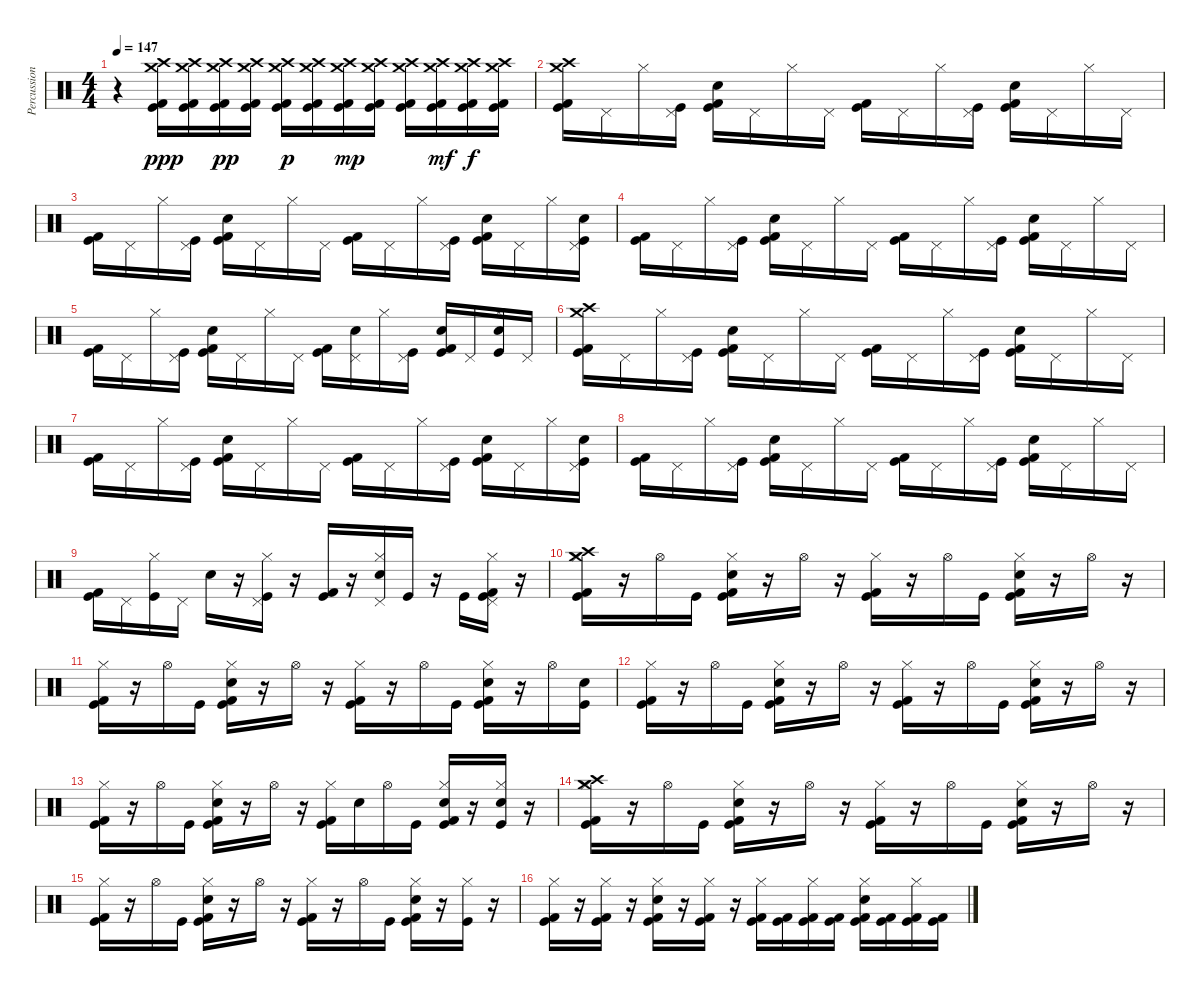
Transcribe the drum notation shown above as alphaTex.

\track ("Percussion (Room Kit)" "Percussion") {instrument percussion}
\staff {score}
\articulation defaults
\ts (4 4)
\tempo 147
\clef neutral
\ks c
r.4{dy f} ("Crash medium (hit)" "Crash high (hit)" "Kick (hit) 2" "Kick (hit)").16{dy ppp} ("Crash medium (hit)" "Crash high (hit)" "Kick (hit) 2" "Kick (hit)").16 ("Crash medium (hit)" "Crash high (hit)" "Kick (hit) 2" "Kick (hit)").16{dy pp} ("Crash medium (hit)" "Crash high (hit)" "Kick (hit) 2" "Kick (hit)").16 ("Crash medium (hit)" "Crash high (hit)" "Kick (hit) 2" "Kick (hit)").16{dy p} ("Crash medium (hit)" "Crash high (hit)" "Kick (hit) 2" "Kick (hit)").16 ("Crash medium (hit)" "Crash high (hit)" "Kick (hit) 2" "Kick (hit)").16{dy mp} ("Crash medium (hit)" "Crash high (hit)" "Kick (hit) 2" "Kick (hit)").16 ("Crash medium (hit)" "Crash high (hit)" "Kick (hit) 2" "Kick (hit)").16 ("Crash medium (hit)" "Crash high (hit)" "Kick (hit) 2" "Kick (hit)").16{dy mf} ("Crash medium (hit)" "Crash high (hit)" "Kick (hit) 2" "Kick (hit)").16{dy f} ("Crash medium (hit)" "Crash high (hit)" "Kick (hit) 2" "Kick (hit)").16 |
("Crash medium (hit)" "Crash high (hit)" "Kick (hit) 2" "Kick (hit)").16 "Pedal Hi-Hat (hit)".16 "Hi-Hat (closed)".16 ("Kick (hit)" "Pedal Hi-Hat (hit)").16 ("Kick (hit) 2" "Kick (hit)" "Hand Clap (hit)").16 "Pedal Hi-Hat (hit)".16 "Hi-Hat (closed)".16 "Pedal Hi-Hat (hit)".16 ("Kick (hit) 2" "Kick (hit)").16 "Pedal Hi-Hat (hit)".16 "Hi-Hat (closed)".16 ("Kick (hit)" "Pedal Hi-Hat (hit)").16 ("Kick (hit) 2" "Kick (hit)" "Hand Clap (hit)").16 "Pedal Hi-Hat (hit)".16 "Hi-Hat (closed)".16 "Pedal Hi-Hat (hit)".16 |
("Kick (hit) 2" "Kick (hit)").16 "Pedal Hi-Hat (hit)".16 "Hi-Hat (closed)".16 ("Kick (hit)" "Pedal Hi-Hat (hit)").16 ("Kick (hit) 2" "Kick (hit)" "Hand Clap (hit)").16 "Pedal Hi-Hat (hit)".16 "Hi-Hat (closed)".16 "Pedal Hi-Hat (hit)".16 ("Kick (hit) 2" "Kick (hit)").16 "Pedal Hi-Hat (hit)".16 "Hi-Hat (closed)".16 ("Kick (hit)" "Pedal Hi-Hat (hit)").16 ("Kick (hit) 2" "Kick (hit)" "Hand Clap (hit)").16 "Pedal Hi-Hat (hit)".16 "Hi-Hat (closed)".16 ("Pedal Hi-Hat (hit)" "Kick (hit)" "Hand Clap (hit)").16 |
("Kick (hit) 2" "Kick (hit)").16 "Pedal Hi-Hat (hit)".16 "Hi-Hat (closed)".16 ("Kick (hit)" "Pedal Hi-Hat (hit)").16 ("Kick (hit) 2" "Kick (hit)" "Hand Clap (hit)").16 "Pedal Hi-Hat (hit)".16 "Hi-Hat (closed)".16 "Pedal Hi-Hat (hit)".16 ("Kick (hit) 2" "Kick (hit)").16 "Pedal Hi-Hat (hit)".16 "Hi-Hat (closed)".16 ("Kick (hit)" "Pedal Hi-Hat (hit)").16 ("Kick (hit) 2" "Kick (hit)" "Hand Clap (hit)").16 "Pedal Hi-Hat (hit)".16 "Hi-Hat (closed)".16 "Pedal Hi-Hat (hit)".16 |
("Kick (hit) 2" "Kick (hit)").16 "Pedal Hi-Hat (hit)".16 "Hi-Hat (closed)".16 ("Kick (hit)" "Pedal Hi-Hat (hit)").16 ("Kick (hit) 2" "Kick (hit)" "Hand Clap (hit)").16 "Pedal Hi-Hat (hit)".16 "Hi-Hat (closed)".16 "Pedal Hi-Hat (hit)".16 ("Kick (hit) 2" "Kick (hit)").16 ("Pedal Hi-Hat (hit)" "Hand Clap (hit)").16 "Hi-Hat (closed)".16 ("Kick (hit)" "Pedal Hi-Hat (hit)").16 ("Kick (hit) 2" "Kick (hit)" "Hand Clap (hit)").16 "Pedal Hi-Hat (hit)".16 ("Hi-Hat (closed)" "Hand Clap (hit)" "Kick (hit)").16 "Pedal Hi-Hat (hit)".16 |
("Crash medium (hit)" "Crash high (hit)" "Kick (hit) 2" "Kick (hit)").16 "Pedal Hi-Hat (hit)".16 "Hi-Hat (closed)".16 ("Kick (hit)" "Pedal Hi-Hat (hit)").16 ("Kick (hit) 2" "Kick (hit)" "Hand Clap (hit)").16 "Pedal Hi-Hat (hit)".16 "Hi-Hat (closed)".16 "Pedal Hi-Hat (hit)".16 ("Kick (hit) 2" "Kick (hit)").16 "Pedal Hi-Hat (hit)".16 "Hi-Hat (closed)".16 ("Kick (hit)" "Pedal Hi-Hat (hit)").16 ("Kick (hit) 2" "Kick (hit)" "Hand Clap (hit)").16 "Pedal Hi-Hat (hit)".16 "Hi-Hat (closed)".16 "Pedal Hi-Hat (hit)".16 |
("Kick (hit) 2" "Kick (hit)").16 "Pedal Hi-Hat (hit)".16 "Hi-Hat (closed)".16 ("Kick (hit)" "Pedal Hi-Hat (hit)").16 ("Kick (hit) 2" "Kick (hit)" "Hand Clap (hit)").16 "Pedal Hi-Hat (hit)".16 "Hi-Hat (closed)".16 "Pedal Hi-Hat (hit)".16 ("Kick (hit) 2" "Kick (hit)").16 "Pedal Hi-Hat (hit)".16 "Hi-Hat (closed)".16 ("Kick (hit)" "Pedal Hi-Hat (hit)").16 ("Kick (hit) 2" "Kick (hit)" "Hand Clap (hit)").16 "Pedal Hi-Hat (hit)".16 "Hi-Hat (closed)".16 ("Pedal Hi-Hat (hit)" "Kick (hit)" "Hand Clap (hit)").16 |
("Kick (hit) 2" "Kick (hit)").16 "Pedal Hi-Hat (hit)".16 "Hi-Hat (closed)".16 ("Kick (hit)" "Pedal Hi-Hat (hit)").16 ("Kick (hit) 2" "Kick (hit)" "Hand Clap (hit)").16 "Pedal Hi-Hat (hit)".16 "Hi-Hat (closed)".16 "Pedal Hi-Hat (hit)".16 ("Kick (hit) 2" "Kick (hit)").16 "Pedal Hi-Hat (hit)".16 "Hi-Hat (closed)".16 ("Kick (hit)" "Pedal Hi-Hat (hit)").16 ("Kick (hit) 2" "Kick (hit)" "Hand Clap (hit)").16 "Pedal Hi-Hat (hit)".16 "Hi-Hat (closed)".16 "Pedal Hi-Hat (hit)".16 |
("Kick (hit) 2" "Kick (hit)").16 "Pedal Hi-Hat (hit)".16 ("Hi-Hat (closed)" "Kick (hit)").16 "Pedal Hi-Hat (hit)".16 "Hand Clap (hit)".16 r.16 ("Hi-Hat (closed)" "Pedal Hi-Hat (hit)" "Kick (hit)").16 r.16 ("Kick (hit) 2" "Kick (hit)").16 r.16 ("Hi-Hat (closed)" "Pedal Hi-Hat (hit)" "Hand Clap (hit)").16 "Kick (hit)".16 r.16 "Kick (hit)".16 ("Hi-Hat (closed)" "Pedal Hi-Hat (hit)" "Kick (hit) 2" "Kick (hit)").16 r.16 |
("Crash medium (hit)" "Crash high (hit)" "Kick (hit) 2" "Kick (hit)" "Hi-Hat (closed)").16 r.16 "Hi-Hat (open)".16 "Kick (hit)".16 ("Hand Clap (hit)" "Kick (hit) 2" "Kick (hit)" "Hi-Hat (closed)").16 r.16 "Hi-Hat (open)".16 r.16 ("Kick (hit) 2" "Kick (hit)" "Hi-Hat (closed)").16 r.16 "Hi-Hat (open)".16 "Kick (hit)".16 ("Kick (hit) 2" "Kick (hit)" "Hand Clap (hit)" "Hi-Hat (closed)").16 r.16 "Hi-Hat (open)".16 r.16 |
("Kick (hit) 2" "Kick (hit)" "Hi-Hat (closed)").16 r.16 "Hi-Hat (open)".16 "Kick (hit)".16 ("Hand Clap (hit)" "Kick (hit) 2" "Kick (hit)" "Hi-Hat (closed)").16 r.16 "Hi-Hat (open)".16 r.16 ("Kick (hit) 2" "Kick (hit)" "Hi-Hat (closed)").16 r.16 "Hi-Hat (open)".16 "Kick (hit)".16 ("Kick (hit) 2" "Kick (hit)" "Hand Clap (hit)" "Hi-Hat (closed)").16 r.16 "Hi-Hat (open)".16 ("Kick (hit)" "Hand Clap (hit)").16 |
("Kick (hit) 2" "Kick (hit)" "Hi-Hat (closed)").16 r.16 "Hi-Hat (open)".16 "Kick (hit)".16 ("Hand Clap (hit)" "Kick (hit) 2" "Kick (hit)" "Hi-Hat (closed)").16 r.16 "Hi-Hat (open)".16 r.16 ("Kick (hit) 2" "Kick (hit)" "Hi-Hat (closed)").16 r.16 "Hi-Hat (open)".16 "Kick (hit)".16 ("Kick (hit) 2" "Kick (hit)" "Hand Clap (hit)" "Hi-Hat (closed)").16 r.16 "Hi-Hat (open)".16 r.16 |
("Kick (hit) 2" "Kick (hit)" "Hi-Hat (closed)").16 r.16 "Hi-Hat (open)".16 "Kick (hit)".16 ("Hand Clap (hit)" "Kick (hit) 2" "Kick (hit)" "Hi-Hat (closed)").16 r.16 "Hi-Hat (open)".16 r.16 ("Kick (hit) 2" "Kick (hit)" "Hi-Hat (closed)").16 "Hand Clap (hit)".16 "Hi-Hat (open)".16 "Kick (hit)".16 ("Kick (hit) 2" "Kick (hit)" "Hand Clap (hit)" "Hi-Hat (closed)").16 r.16 ("Kick (hit)" "Hand Clap (hit)" "Hi-Hat (closed)").16 r.16 |
("Crash medium (hit)" "Crash high (hit)" "Kick (hit) 2" "Kick (hit)" "Hi-Hat (closed)").16 r.16 "Hi-Hat (open)".16 "Kick (hit)".16 ("Hand Clap (hit)" "Kick (hit) 2" "Kick (hit)" "Hi-Hat (closed)").16 r.16 "Hi-Hat (open)".16 r.16 ("Kick (hit) 2" "Kick (hit)" "Hi-Hat (closed)").16 r.16 "Hi-Hat (open)".16 "Kick (hit)".16 ("Kick (hit) 2" "Kick (hit)" "Hand Clap (hit)" "Hi-Hat (closed)").16 r.16 "Hi-Hat (open)".16 r.16 |
("Kick (hit) 2" "Kick (hit)" "Hi-Hat (closed)").16 r.16 "Hi-Hat (open)".16 "Kick (hit)".16 ("Hand Clap (hit)" "Kick (hit) 2" "Kick (hit)" "Hi-Hat (closed)").16 r.16 "Hi-Hat (open)".16 r.16 ("Kick (hit) 2" "Kick (hit)" "Hi-Hat (closed)").16 r.16 "Hi-Hat (open)".16 "Kick (hit)".16 ("Kick (hit) 2" "Kick (hit)" "Hand Clap (hit)" "Hi-Hat (closed)").16 r.16 ("Hi-Hat (closed)" "Kick (hit)").16 r.16 |
("Kick (hit) 2" "Kick (hit)" "Hi-Hat (closed)").16 r.16 ("Kick (hit) 2" "Kick (hit)" "Hi-Hat (closed)").16 r.16 ("Kick (hit) 2" "Kick (hit)" "Hand Clap (hit)" "Hi-Hat (closed)").16 r.16 ("Kick (hit) 2" "Kick (hit)" "Hi-Hat (closed)").16 r.16 ("Hi-Hat (closed)" "Kick (hit) 2" "Kick (hit)").16 ("Kick (hit) 2" "Kick (hit)").16 ("Hi-Hat (closed)" "Kick (hit) 2" "Kick (hit)").16 ("Kick (hit) 2" "Kick (hit)").16 ("Hand Clap (hit)" "Hi-Hat (closed)" "Kick (hit) 2" "Kick (hit)").16 ("Kick (hit) 2" "Kick (hit)").16 ("Hi-Hat (closed)" "Kick (hit) 2" "Kick (hit)").16 ("Kick (hit) 2" "Kick (hit)").16
